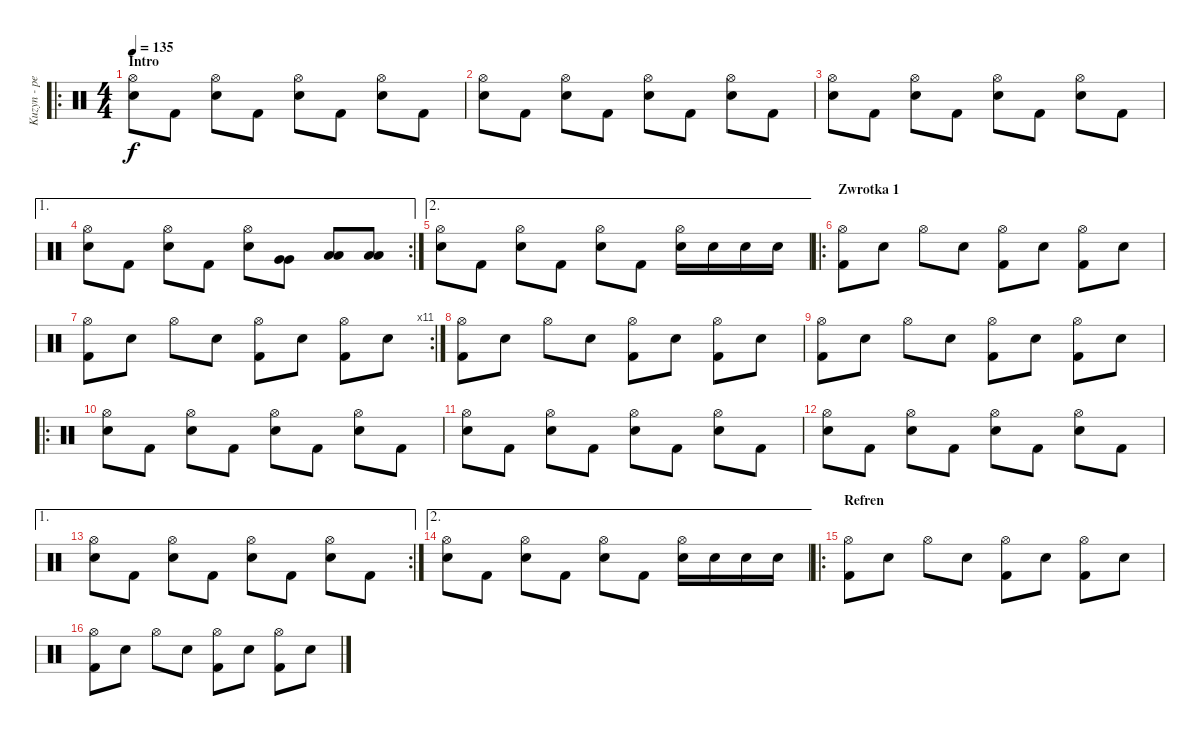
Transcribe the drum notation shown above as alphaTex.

\track ("Kuzyn - perkusja" "Kuzyn - pe") {instrument percussion}
\staff {score}
\articulation defaults
\ro
\ts (4 4)
\section ("" "Intro")
\tempo 135
\clef neutral
\ks c
("Hi-Hat (open)" "Electric Snare (hit)").8{dy f} "Kick (hit) 2".8 ("Hi-Hat (open)" "Electric Snare (hit)").8 "Kick (hit) 2".8 ("Hi-Hat (open)" "Electric Snare (hit)").8 "Kick (hit) 2".8 ("Hi-Hat (open)" "Electric Snare (hit)").8 "Kick (hit) 2".8 |
("Hi-Hat (open)" "Electric Snare (hit)").8 "Kick (hit) 2".8 ("Hi-Hat (open)" "Electric Snare (hit)").8 "Kick (hit) 2".8 ("Hi-Hat (open)" "Electric Snare (hit)").8 "Kick (hit) 2".8 ("Hi-Hat (open)" "Electric Snare (hit)").8 "Kick (hit) 2".8 |
("Hi-Hat (open)" "Electric Snare (hit)").8 "Kick (hit) 2".8 ("Hi-Hat (open)" "Electric Snare (hit)").8 "Kick (hit) 2".8 ("Hi-Hat (open)" "Electric Snare (hit)").8 "Kick (hit) 2".8 ("Hi-Hat (open)" "Electric Snare (hit)").8 "Kick (hit) 2".8 |
\ae 1
\rc 2
("Hi-Hat (open)" "Electric Snare (hit)").8 "Kick (hit) 2".8 ("Hi-Hat (open)" "Electric Snare (hit)").8 "Kick (hit) 2".8 ("Hi-Hat (open)" "Electric Snare (hit)").8 ("Very Low Tom (hit)" "Very Low Tom (hit)").8 ("Low Tom (hit)" "Low Tom (hit)").8 ("Low Floor Tom (hit)" "Low Floor Tom (hit)").8 |
\ae 2
("Hi-Hat (open)" "Electric Snare (hit)").8 "Kick (hit) 2".8 ("Hi-Hat (open)" "Electric Snare (hit)").8 "Kick (hit) 2".8 ("Hi-Hat (open)" "Electric Snare (hit)").8 "Kick (hit) 2".8 ("Hi-Hat (open)" "Electric Snare (hit)").16 "Electric Snare (hit)".16 "Electric Snare (hit)".16 "Electric Snare (hit)".16 |
\ro
\section ("" "Zwrotka 1")
("Hi-Hat (open)" "Kick (hit) 2").8 "Electric Snare (hit)".8 "Hi-Hat (open)".8 "Electric Snare (hit)".8 ("Hi-Hat (open)" "Kick (hit) 2").8 "Electric Snare (hit)".8 ("Hi-Hat (open)" "Kick (hit) 2").8 "Electric Snare (hit)".8 |
\rc 11
("Hi-Hat (open)" "Kick (hit) 2").8 "Electric Snare (hit)".8 "Hi-Hat (open)".8 "Electric Snare (hit)".8 ("Hi-Hat (open)" "Kick (hit) 2").8 "Electric Snare (hit)".8 ("Hi-Hat (open)" "Kick (hit) 2").8 "Electric Snare (hit)".8 |
("Hi-Hat (open)" "Kick (hit) 2").8 "Electric Snare (hit)".8 "Hi-Hat (open)".8 "Electric Snare (hit)".8 ("Hi-Hat (open)" "Kick (hit) 2").8 "Electric Snare (hit)".8 ("Hi-Hat (open)" "Kick (hit) 2").8 "Electric Snare (hit)".8 |
("Hi-Hat (open)" "Kick (hit) 2").8 "Electric Snare (hit)".8 "Hi-Hat (open)".8 "Electric Snare (hit)".8 ("Hi-Hat (open)" "Kick (hit) 2").8 "Electric Snare (hit)".8 ("Hi-Hat (open)" "Kick (hit) 2").8 "Electric Snare (hit)".8 |
\ro
("Hi-Hat (open)" "Electric Snare (hit)").8 "Kick (hit) 2".8 ("Hi-Hat (open)" "Electric Snare (hit)").8 "Kick (hit) 2".8 ("Hi-Hat (open)" "Electric Snare (hit)").8 "Kick (hit) 2".8 ("Hi-Hat (open)" "Electric Snare (hit)").8 "Kick (hit) 2".8 |
("Hi-Hat (open)" "Electric Snare (hit)").8 "Kick (hit) 2".8 ("Hi-Hat (open)" "Electric Snare (hit)").8 "Kick (hit) 2".8 ("Hi-Hat (open)" "Electric Snare (hit)").8 "Kick (hit) 2".8 ("Hi-Hat (open)" "Electric Snare (hit)").8 "Kick (hit) 2".8 |
("Hi-Hat (open)" "Electric Snare (hit)").8 "Kick (hit) 2".8 ("Hi-Hat (open)" "Electric Snare (hit)").8 "Kick (hit) 2".8 ("Hi-Hat (open)" "Electric Snare (hit)").8 "Kick (hit) 2".8 ("Hi-Hat (open)" "Electric Snare (hit)").8 "Kick (hit) 2".8 |
\ae 1
\rc 2
("Hi-Hat (open)" "Electric Snare (hit)").8 "Kick (hit) 2".8 ("Hi-Hat (open)" "Electric Snare (hit)").8 "Kick (hit) 2".8 ("Hi-Hat (open)" "Electric Snare (hit)").8 "Kick (hit) 2".8 ("Hi-Hat (open)" "Electric Snare (hit)").8 "Kick (hit) 2".8 |
\ae 2
("Hi-Hat (open)" "Electric Snare (hit)").8 "Kick (hit) 2".8 ("Hi-Hat (open)" "Electric Snare (hit)").8 "Kick (hit) 2".8 ("Hi-Hat (open)" "Electric Snare (hit)").8 "Kick (hit) 2".8 ("Hi-Hat (open)" "Electric Snare (hit)").16 "Electric Snare (hit)".16 "Electric Snare (hit)".16 "Electric Snare (hit)".16 |
\ro
\section ("" "Refren")
("Hi-Hat (open)" "Kick (hit) 2").8 "Electric Snare (hit)".8 "Hi-Hat (open)".8 "Electric Snare (hit)".8 ("Hi-Hat (open)" "Kick (hit) 2").8 "Electric Snare (hit)".8 ("Hi-Hat (open)" "Kick (hit) 2").8 "Electric Snare (hit)".8 |
("Hi-Hat (open)" "Kick (hit) 2").8 "Electric Snare (hit)".8 "Hi-Hat (open)".8 "Electric Snare (hit)".8 ("Hi-Hat (open)" "Kick (hit) 2").8 "Electric Snare (hit)".8 ("Hi-Hat (open)" "Kick (hit) 2").8 "Electric Snare (hit)".8
